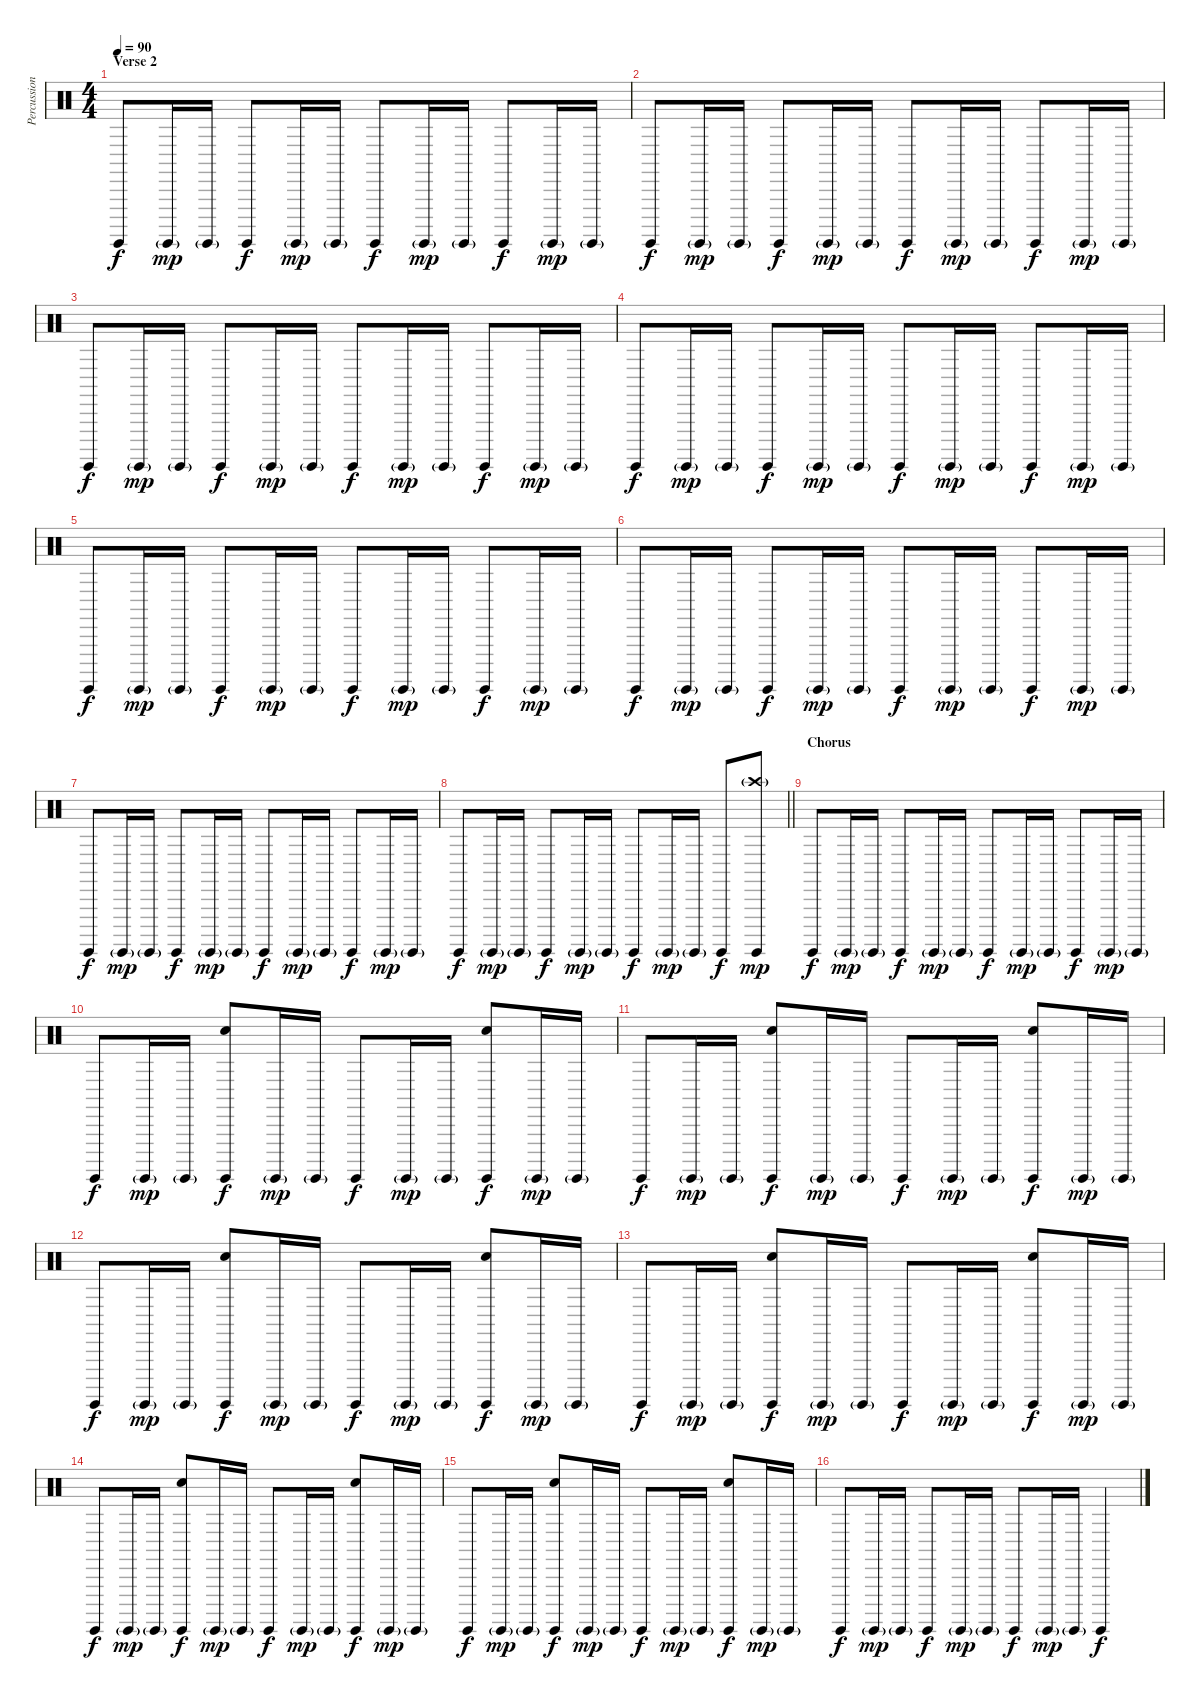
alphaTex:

\track ("Percussion" "Percussion") {instrument percussion}
\staff {score}
\articulation defaults
\ts (4 4)
\section ("" "Verse 2")
\tempo 90
\clef neutral
\ks c "Surdo (hit)".8{dy f} "Surdo (hit)"{g}.16{dy mp} "Surdo (hit)"{g}.16 "Surdo (hit)".8{dy f} "Surdo (hit)"{g}.16{dy mp} "Surdo (hit)"{g}.16 "Surdo (hit)".8{dy f} "Surdo (hit)"{g}.16{dy mp} "Surdo (hit)"{g}.16 "Surdo (hit)".8{dy f} "Surdo (hit)"{g}.16{dy mp} "Surdo (hit)"{g}.16
|
"Surdo (hit)".8{dy f} "Surdo (hit)"{g}.16{dy mp} "Surdo (hit)"{g}.16 "Surdo (hit)".8{dy f} "Surdo (hit)"{g}.16{dy mp} "Surdo (hit)"{g}.16 "Surdo (hit)".8{dy f} "Surdo (hit)"{g}.16{dy mp} "Surdo (hit)"{g}.16 "Surdo (hit)".8{dy f} "Surdo (hit)"{g}.16{dy mp} "Surdo (hit)"{g}.16 |
"Surdo (hit)".8{dy f} "Surdo (hit)"{g}.16{dy mp} "Surdo (hit)"{g}.16 "Surdo (hit)".8{dy f} "Surdo (hit)"{g}.16{dy mp} "Surdo (hit)"{g}.16 "Surdo (hit)".8{dy f} "Surdo (hit)"{g}.16{dy mp} "Surdo (hit)"{g}.16 "Surdo (hit)".8{dy f} "Surdo (hit)"{g}.16{dy mp} "Surdo (hit)"{g}.16 |
"Surdo (hit)".8{dy f} "Surdo (hit)"{g}.16{dy mp} "Surdo (hit)"{g}.16 "Surdo (hit)".8{dy f} "Surdo (hit)"{g}.16{dy mp} "Surdo (hit)"{g}.16 "Surdo (hit)".8{dy f} "Surdo (hit)"{g}.16{dy mp} "Surdo (hit)"{g}.16 "Surdo (hit)".8{dy f} "Surdo (hit)"{g}.16{dy mp} "Surdo (hit)"{g}.16 |
"Surdo (hit)".8{dy f} "Surdo (hit)"{g}.16{dy mp} "Surdo (hit)"{g}.16 "Surdo (hit)".8{dy f} "Surdo (hit)"{g}.16{dy mp} "Surdo (hit)"{g}.16 "Surdo (hit)".8{dy f} "Surdo (hit)"{g}.16{dy mp} "Surdo (hit)"{g}.16 "Surdo (hit)".8{dy f} "Surdo (hit)"{g}.16{dy mp} "Surdo (hit)"{g}.16 |
"Surdo (hit)".8{dy f} "Surdo (hit)"{g}.16{dy mp} "Surdo (hit)"{g}.16 "Surdo (hit)".8{dy f} "Surdo (hit)"{g}.16{dy mp} "Surdo (hit)"{g}.16 "Surdo (hit)".8{dy f} "Surdo (hit)"{g}.16{dy mp} "Surdo (hit)"{g}.16 "Surdo (hit)".8{dy f} "Surdo (hit)"{g}.16{dy mp} "Surdo (hit)"{g}.16 |
"Surdo (hit)".8{dy f} "Surdo (hit)"{g}.16{dy mp} "Surdo (hit)"{g}.16 "Surdo (hit)".8{dy f} "Surdo (hit)"{g}.16{dy mp} "Surdo (hit)"{g}.16 "Surdo (hit)".8{dy f} "Surdo (hit)"{g}.16{dy mp} "Surdo (hit)"{g}.16 "Surdo (hit)".8{dy f} "Surdo (hit)"{g}.16{dy mp} "Surdo (hit)"{g}.16 |
\barLineRight lightlight "Surdo (hit)".8{dy f} "Surdo (hit)"{g}.16{dy mp} "Surdo (hit)"{g}.16 "Surdo (hit)".8{dy f} "Surdo (hit)"{g}.16{dy mp} "Surdo (hit)"{g}.16 "Surdo (hit)".8{dy f} "Surdo (hit)"{g}.16{dy mp} "Surdo (hit)"{g}.16 "Surdo (hit)".8{dy f}
("Surdo (hit)" "Crash high (hit)"{g}).8{dy mp} |
\section ("" "Chorus")
"Surdo (hit)".8{dy f} "Surdo (hit)"{g}.16{dy mp} "Surdo (hit)"{g}.16 "Surdo (hit)".8{dy f} "Surdo (hit)"{g}.16{dy mp} "Surdo (hit)"{g}.16 "Surdo (hit)".8{dy f} "Surdo (hit)"{g}.16{dy mp} "Surdo (hit)"{g}.16 "Surdo (hit)".8{dy f} "Surdo (hit)"{g}.16{dy mp} "Surdo (hit)"{g}.16 |
"Surdo (hit)".8{dy f} "Surdo (hit)"{g}.16{dy mp} "Surdo (hit)"{g}.16 ("Surdo (hit)" "Hand Clap (hit)").8{dy f} "Surdo (hit)"{g}.16{dy mp} "Surdo (hit)"{g}.16 "Surdo (hit)".8{dy f} "Surdo (hit)"{g}.16{dy mp} "Surdo (hit)"{g}.16 ("Surdo (hit)" "Hand Clap (hit)").8{dy f} "Surdo (hit)"{g}.16{dy mp} "Surdo (hit)"{g}.16 |
"Surdo (hit)".8{dy f} "Surdo (hit)"{g}.16{dy mp} "Surdo (hit)"{g}.16 ("Surdo (hit)" "Hand Clap (hit)").8{dy f} "Surdo (hit)"{g}.16{dy mp} "Surdo (hit)"{g}.16 "Surdo (hit)".8{dy f} "Surdo (hit)"{g}.16{dy mp} "Surdo (hit)"{g}.16 ("Surdo (hit)" "Hand Clap (hit)").8{dy f} "Surdo (hit)"{g}.16{dy mp} "Surdo (hit)"{g}.16 |
"Surdo (hit)".8{dy f} "Surdo (hit)"{g}.16{dy mp} "Surdo (hit)"{g}.16 ("Surdo (hit)" "Hand Clap (hit)").8{dy f} "Surdo (hit)"{g}.16{dy mp} "Surdo (hit)"{g}.16 "Surdo (hit)".8{dy f} "Surdo (hit)"{g}.16{dy mp} "Surdo (hit)"{g}.16 ("Surdo (hit)" "Hand Clap (hit)").8{dy f} "Surdo (hit)"{g}.16{dy mp} "Surdo (hit)"{g}.16 |
"Surdo (hit)".8{dy f} "Surdo (hit)"{g}.16{dy mp} "Surdo (hit)"{g}.16 ("Surdo (hit)" "Hand Clap (hit)").8{dy f} "Surdo (hit)"{g}.16{dy mp} "Surdo (hit)"{g}.16 "Surdo (hit)".8{dy f} "Surdo (hit)"{g}.16{dy mp} "Surdo (hit)"{g}.16 ("Surdo (hit)" "Hand Clap (hit)").8{dy f} "Surdo (hit)"{g}.16{dy mp} "Surdo (hit)"{g}.16 |
"Surdo (hit)".8{dy f} "Surdo (hit)"{g}.16{dy mp} "Surdo (hit)"{g}.16 ("Surdo (hit)" "Hand Clap (hit)").8{dy f} "Surdo (hit)"{g}.16{dy mp} "Surdo (hit)"{g}.16 "Surdo (hit)".8{dy f} "Surdo (hit)"{g}.16{dy mp} "Surdo (hit)"{g}.16 ("Surdo (hit)" "Hand Clap (hit)").8{dy f} "Surdo (hit)"{g}.16{dy mp} "Surdo (hit)"{g}.16 |
"Surdo (hit)".8{dy f} "Surdo (hit)"{g}.16{dy mp} "Surdo (hit)"{g}.16 ("Surdo (hit)" "Hand Clap (hit)").8{dy f} "Surdo (hit)"{g}.16{dy mp} "Surdo (hit)"{g}.16 "Surdo (hit)".8{dy f} "Surdo (hit)"{g}.16{dy mp} "Surdo (hit)"{g}.16 ("Surdo (hit)" "Hand Clap (hit)").8{dy f} "Surdo (hit)"{g}.16{dy mp} "Surdo (hit)"{g}.16 |
"Surdo (hit)".8{dy f} "Surdo (hit)"{g}.16{dy mp} "Surdo (hit)"{g}.16 "Surdo (hit)".8{dy f} "Surdo (hit)"{g}.16{dy mp} "Surdo (hit)"{g}.16 "Surdo (hit)".8{dy f} "Surdo (hit)"{g}.16{dy mp} "Surdo (hit)"{g}.16 "Surdo (hit)".4{dy f}
